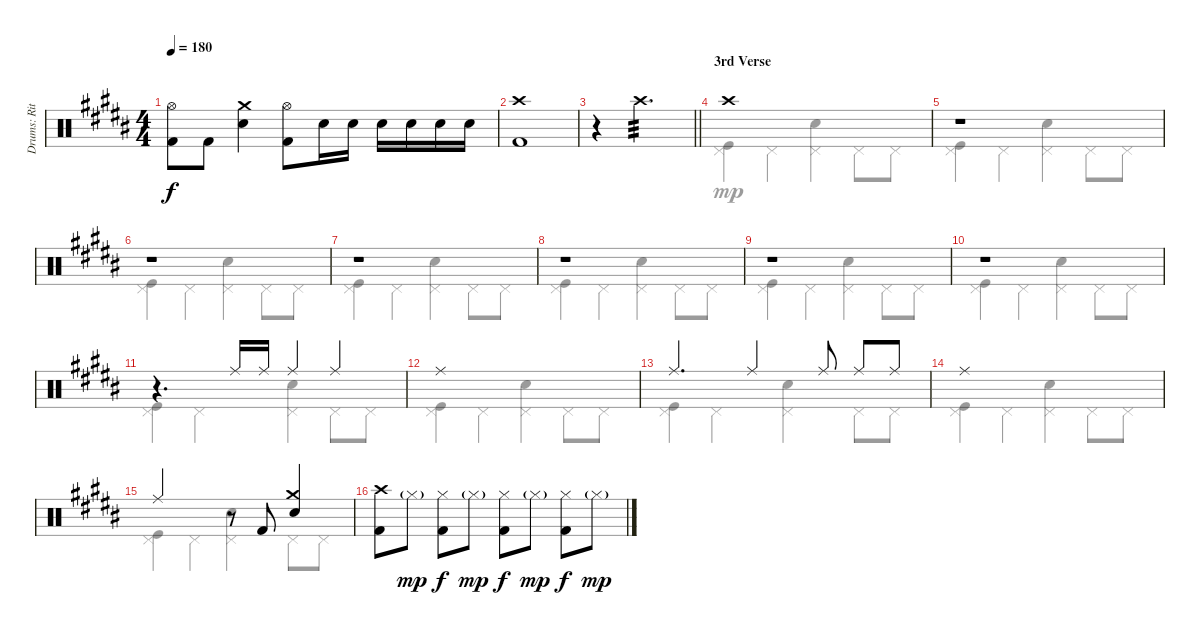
\track ("Drums: Ritsu " "Drums: Rit") {instrument percussion}
\staff {score}
\articulation defaults
\voice
\ts (4 4)
\tempo 180
\clef neutral
\ks b
("Hi-Hat (open)" "Kick (hit) 2").8{dy f} "Kick (hit) 2".8 ("Crash medium (hit)" "Electric Snare (hit)").4 ("Hi-Hat (open)" "Kick (hit) 2").8 "Electric Snare (hit)".16 "Electric Snare (hit)".16 "Electric Snare (hit)".16 "Electric Snare (hit)".16 "Electric Snare (hit)".16 "Electric Snare (hit)".16 |
("Crash high (hit)" "Kick (hit) 2").1 |
\barLineRight lightlight
r.4{volume 0} "Crash high (hit)".2{d tp 3 volume 16} |
\section ("" "3rd Verse")
"Crash high (hit)".1 |
r.1 |
r.1 |
r.1 |
r.1 |
r.1 |
r.1 |
r.4{d} "Ride (middle)".16 "Ride (middle)".16 "Ride (middle)".4 "Ride (middle)".4 |
"Ride (middle)".1 |
"Ride (middle)".4{d} "Ride (middle)".4 "Ride (middle)".8 "Ride (middle)".8 "Ride (middle)".8 |
"Ride (middle)".1 |
"Ride (middle)".2 r.8 "Kick (hit) 2".8 ("Crash medium (hit)" "Electric Snare (hit)").4 |
("Crash high (hit)" "Kick (hit) 2").8 "Hi-Hat (closed)"{g}.8{dy mp} ("Hi-Hat (closed)" "Kick (hit) 2").8{dy f} "Hi-Hat (closed)"{g}.8{dy mp} ("Hi-Hat (closed)" "Kick (hit) 2").8{dy f} "Hi-Hat (closed)"{g}.8{dy mp} ("Hi-Hat (closed)" "Kick (hit) 2").8{dy f} "Hi-Hat (closed)"{g}.8{dy mp}
\voice
\clef neutral
\ottava regular
\simile none
\ks b
|
|
\barLineRight lightlight
|
("Pedal Hi-Hat (hit)" "Kick (hit)").4{dy mp} "Pedal Hi-Hat (hit)".4 ("Pedal Hi-Hat (hit)" "Snare (hit) 2").4 "Pedal Hi-Hat (hit)".8 "Pedal Hi-Hat (hit)".8 |
("Pedal Hi-Hat (hit)" "Kick (hit)").4 "Pedal Hi-Hat (hit)".4 ("Pedal Hi-Hat (hit)" "Snare (hit) 2").4 "Pedal Hi-Hat (hit)".8 "Pedal Hi-Hat (hit)".8 |
("Pedal Hi-Hat (hit)" "Kick (hit)").4 "Pedal Hi-Hat (hit)".4 ("Pedal Hi-Hat (hit)" "Snare (hit) 2").4 "Pedal Hi-Hat (hit)".8 "Pedal Hi-Hat (hit)".8 |
("Pedal Hi-Hat (hit)" "Kick (hit)").4 "Pedal Hi-Hat (hit)".4 ("Pedal Hi-Hat (hit)" "Snare (hit) 2").4 "Pedal Hi-Hat (hit)".8 "Pedal Hi-Hat (hit)".8 |
("Pedal Hi-Hat (hit)" "Kick (hit)").4 "Pedal Hi-Hat (hit)".4 ("Pedal Hi-Hat (hit)" "Snare (hit) 2").4 "Pedal Hi-Hat (hit)".8 "Pedal Hi-Hat (hit)".8 |
("Pedal Hi-Hat (hit)" "Kick (hit)").4 "Pedal Hi-Hat (hit)".4 ("Pedal Hi-Hat (hit)" "Snare (hit) 2").4 "Pedal Hi-Hat (hit)".8 "Pedal Hi-Hat (hit)".8 |
("Pedal Hi-Hat (hit)" "Kick (hit)").4 "Pedal Hi-Hat (hit)".4 ("Pedal Hi-Hat (hit)" "Snare (hit) 2").4 "Pedal Hi-Hat (hit)".8 "Pedal Hi-Hat (hit)".8 |
("Pedal Hi-Hat (hit)" "Kick (hit)").4 "Pedal Hi-Hat (hit)".4 ("Pedal Hi-Hat (hit)" "Snare (hit) 2").4 "Pedal Hi-Hat (hit)".8 "Pedal Hi-Hat (hit)".8 |
("Pedal Hi-Hat (hit)" "Kick (hit)").4 "Pedal Hi-Hat (hit)".4 ("Pedal Hi-Hat (hit)" "Snare (hit) 2").4 "Pedal Hi-Hat (hit)".8 "Pedal Hi-Hat (hit)".8 |
("Pedal Hi-Hat (hit)" "Kick (hit)").4 "Pedal Hi-Hat (hit)".4 ("Pedal Hi-Hat (hit)" "Snare (hit) 2").4 "Pedal Hi-Hat (hit)".8 "Pedal Hi-Hat (hit)".8 |
("Pedal Hi-Hat (hit)" "Kick (hit)").4 "Pedal Hi-Hat (hit)".4 ("Pedal Hi-Hat (hit)" "Snare (hit) 2").4 "Pedal Hi-Hat (hit)".8 "Pedal Hi-Hat (hit)".8 |
("Pedal Hi-Hat (hit)" "Kick (hit)").4 "Pedal Hi-Hat (hit)".4 ("Pedal Hi-Hat (hit)" "Snare (hit) 2").4 "Pedal Hi-Hat (hit)".8 "Pedal Hi-Hat (hit)".8 |
